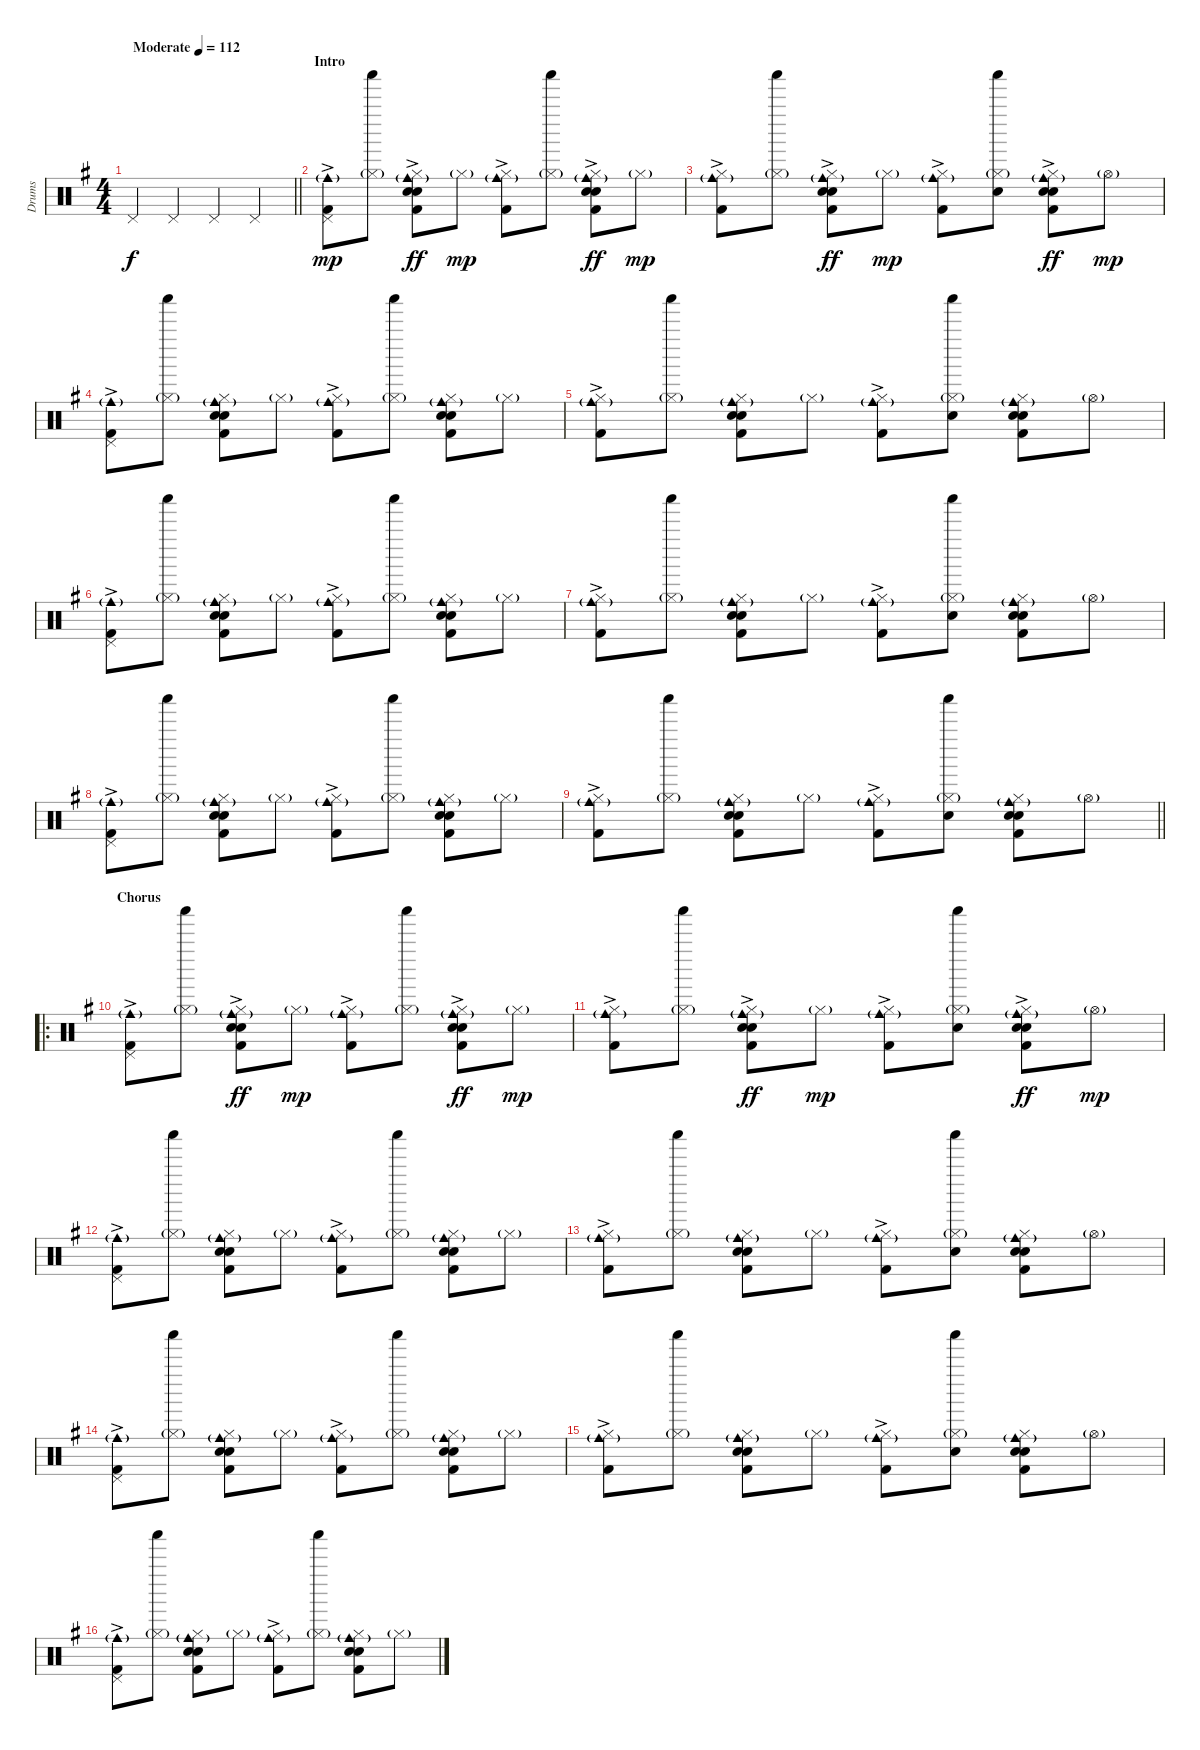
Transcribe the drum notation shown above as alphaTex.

\track ("Drums" "Drums") {instrument percussion}
\staff {score}
\articulation defaults
\ts (4 4)
\tempo (112 "Moderate")
\clef neutral
\barLineRight lightlight
\ks g "Pedal Hi-Hat (hit)".4{dy f} "Pedal Hi-Hat (hit)".4 "Pedal Hi-Hat (hit)".4 "Pedal Hi-Hat (hit)".4
|
\section ("" "Intro")
("Pedal Hi-Hat (hit)"{ac} "Cowbell medium (hit)"{g} "Kick (hit) 2").8{dy mp} ("Hi-Hat (closed)"{g} "Shaker (hit)").8 ("Hi-Hat (closed)" "Hand Clap (hit)" "Cowbell medium (hit)"{g} "Electric Snare (hit)"{ac} "Kick (hit) 2").8{dy ff} "Hi-Hat (closed)"{g}.8{dy mp} ("Hi-Hat (closed)"{ac} "Cowbell medium (hit)"{g} "Kick (hit) 2").8 ("Hi-Hat (closed)"{g} "Shaker (hit)").8 ("Hi-Hat (closed)" "Hand Clap (hit)" "Cowbell medium (hit)"{g} "Electric Snare (hit)"{ac} "Kick (hit) 2").8{dy ff} "Hi-Hat (closed)"{g}.8{dy mp} |
("Hi-Hat (closed)"{ac} "Cowbell medium (hit)"{g} "Kick (hit) 2").8 ("Hi-Hat (closed)"{g} "Shaker (hit)").8 ("Hi-Hat (closed)" "Hand Clap (hit)" "Cowbell medium (hit)"{g} "Electric Snare (hit)"{ac} "Kick (hit) 2").8{dy ff} "Hi-Hat (closed)"{g}.8{dy mp} ("Hi-Hat (closed)"{ac} "Cowbell medium (hit)"{g} "Kick (hit) 2").8 ("Hi-Hat (closed)"{g} "Hand Clap (hit)" "Shaker (hit)").8 ("Hi-Hat (closed)" "Hand Clap (hit)" "Cowbell medium (hit)"{g} "Electric Snare (hit)"{ac} "Kick (hit) 2").8{dy ff} "Hi-Hat (open)"{g}.8{dy mp} |
("Pedal Hi-Hat (hit)"{ac} "Cowbell medium (hit)"{g} "Kick (hit) 2").8 ("Hi-Hat (closed)"{g} "Shaker (hit)").8 ("Hi-Hat (closed)" "Hand Clap (hit)" "Electric Snare (hit)" "Cowbell medium (hit)"{g} "Kick (hit) 2").8 "Hi-Hat (closed)"{g}.8 ("Hi-Hat (closed)"{ac} "Cowbell medium (hit)"{g} "Kick (hit) 2").8 ("Hi-Hat (closed)"{g} "Shaker (hit)").8 ("Hi-Hat (closed)" "Hand Clap (hit)" "Electric Snare (hit)" "Cowbell medium (hit)"{g} "Kick (hit) 2").8 "Hi-Hat (closed)"{g}.8 |
("Hi-Hat (closed)"{ac} "Cowbell medium (hit)"{g} "Kick (hit) 2").8 ("Hi-Hat (closed)"{g} "Shaker (hit)").8 ("Hi-Hat (closed)" "Hand Clap (hit)" "Electric Snare (hit)" "Cowbell medium (hit)"{g} "Kick (hit) 2").8 "Hi-Hat (closed)"{g}.8 ("Hi-Hat (closed)"{ac} "Cowbell medium (hit)"{g} "Kick (hit) 2").8 ("Hi-Hat (closed)"{g} "Hand Clap (hit)" "Shaker (hit)").8 ("Hi-Hat (closed)" "Hand Clap (hit)" "Electric Snare (hit)" "Cowbell medium (hit)"{g} "Kick (hit) 2").8 "Hi-Hat (open)"{g}.8 |
("Pedal Hi-Hat (hit)"{ac} "Cowbell medium (hit)"{g} "Kick (hit) 2").8 ("Hi-Hat (closed)"{g} "Shaker (hit)").8 ("Hi-Hat (closed)" "Hand Clap (hit)" "Electric Snare (hit)" "Cowbell medium (hit)"{g} "Kick (hit) 2").8 "Hi-Hat (closed)"{g}.8 ("Hi-Hat (closed)"{ac} "Cowbell medium (hit)"{g} "Kick (hit) 2").8 ("Hi-Hat (closed)"{g} "Shaker (hit)").8 ("Hi-Hat (closed)" "Hand Clap (hit)" "Electric Snare (hit)" "Cowbell medium (hit)"{g} "Kick (hit) 2").8 "Hi-Hat (closed)"{g}.8 |
("Hi-Hat (closed)"{ac} "Cowbell medium (hit)"{g} "Kick (hit) 2").8 ("Hi-Hat (closed)"{g} "Shaker (hit)").8 ("Hi-Hat (closed)" "Hand Clap (hit)" "Electric Snare (hit)" "Cowbell medium (hit)"{g} "Kick (hit) 2").8 "Hi-Hat (closed)"{g}.8 ("Hi-Hat (closed)"{ac} "Cowbell medium (hit)"{g} "Kick (hit) 2").8 ("Hi-Hat (closed)"{g} "Hand Clap (hit)" "Shaker (hit)").8 ("Hi-Hat (closed)" "Hand Clap (hit)" "Electric Snare (hit)" "Cowbell medium (hit)"{g} "Kick (hit) 2").8 "Hi-Hat (open)"{g}.8 |
("Pedal Hi-Hat (hit)"{ac} "Cowbell medium (hit)"{g} "Kick (hit) 2").8 ("Hi-Hat (closed)"{g} "Shaker (hit)").8 ("Hi-Hat (closed)" "Hand Clap (hit)" "Electric Snare (hit)" "Cowbell medium (hit)"{g} "Kick (hit) 2").8 "Hi-Hat (closed)"{g}.8 ("Hi-Hat (closed)"{ac} "Cowbell medium (hit)"{g} "Kick (hit) 2").8 ("Hi-Hat (closed)"{g} "Shaker (hit)").8 ("Hi-Hat (closed)" "Hand Clap (hit)" "Electric Snare (hit)" "Cowbell medium (hit)"{g} "Kick (hit) 2").8 "Hi-Hat (closed)"{g}.8 |
\barLineRight lightlight
("Hi-Hat (closed)"{ac} "Cowbell medium (hit)"{g} "Kick (hit) 2").8 ("Hi-Hat (closed)"{g} "Shaker (hit)").8 ("Hi-Hat (closed)" "Hand Clap (hit)" "Electric Snare (hit)" "Cowbell medium (hit)"{g} "Kick (hit) 2").8 "Hi-Hat (closed)"{g}.8 ("Hi-Hat (closed)"{ac} "Cowbell medium (hit)"{g} "Kick (hit) 2").8 ("Hi-Hat (closed)"{g} "Hand Clap (hit)" "Shaker (hit)").8 ("Hi-Hat (closed)" "Hand Clap (hit)" "Electric Snare (hit)" "Cowbell medium (hit)"{g} "Kick (hit) 2").8 "Hi-Hat (open)"{g}.8 |
\ro
\section ("" "Chorus")
("Pedal Hi-Hat (hit)"{ac} "Cowbell medium (hit)"{g} "Kick (hit) 2").8 ("Hi-Hat (closed)"{g} "Shaker (hit)").8 ("Hi-Hat (closed)" "Hand Clap (hit)" "Cowbell medium (hit)"{g} "Electric Snare (hit)"{ac} "Kick (hit) 2").8{dy ff} "Hi-Hat (closed)"{g}.8{dy mp} ("Hi-Hat (closed)"{ac} "Cowbell medium (hit)"{g} "Kick (hit) 2").8 ("Hi-Hat (closed)"{g} "Shaker (hit)").8 ("Hi-Hat (closed)" "Hand Clap (hit)" "Cowbell medium (hit)"{g} "Electric Snare (hit)"{ac} "Kick (hit) 2").8{dy ff} "Hi-Hat (closed)"{g}.8{dy mp} |
("Hi-Hat (closed)"{ac} "Cowbell medium (hit)"{g} "Kick (hit) 2").8 ("Hi-Hat (closed)"{g} "Shaker (hit)").8 ("Hi-Hat (closed)" "Hand Clap (hit)" "Cowbell medium (hit)"{g} "Electric Snare (hit)"{ac} "Kick (hit) 2").8{dy ff} "Hi-Hat (closed)"{g}.8{dy mp} ("Hi-Hat (closed)"{ac} "Cowbell medium (hit)"{g} "Kick (hit) 2").8 ("Hi-Hat (closed)"{g} "Hand Clap (hit)" "Shaker (hit)").8 ("Hi-Hat (closed)" "Hand Clap (hit)" "Cowbell medium (hit)"{g} "Electric Snare (hit)"{ac} "Kick (hit) 2").8{dy ff} "Hi-Hat (open)"{g}.8{dy mp} |
("Pedal Hi-Hat (hit)"{ac} "Cowbell medium (hit)"{g} "Kick (hit) 2").8 ("Hi-Hat (closed)"{g} "Shaker (hit)").8 ("Hi-Hat (closed)" "Hand Clap (hit)" "Electric Snare (hit)" "Cowbell medium (hit)"{g} "Kick (hit) 2").8 "Hi-Hat (closed)"{g}.8 ("Hi-Hat (closed)"{ac} "Cowbell medium (hit)"{g} "Kick (hit) 2").8 ("Hi-Hat (closed)"{g} "Shaker (hit)").8 ("Hi-Hat (closed)" "Hand Clap (hit)" "Electric Snare (hit)" "Cowbell medium (hit)"{g} "Kick (hit) 2").8 "Hi-Hat (closed)"{g}.8 |
("Hi-Hat (closed)"{ac} "Cowbell medium (hit)"{g} "Kick (hit) 2").8 ("Hi-Hat (closed)"{g} "Shaker (hit)").8 ("Hi-Hat (closed)" "Hand Clap (hit)" "Electric Snare (hit)" "Cowbell medium (hit)"{g} "Kick (hit) 2").8 "Hi-Hat (closed)"{g}.8 ("Hi-Hat (closed)"{ac} "Cowbell medium (hit)"{g} "Kick (hit) 2").8 ("Hi-Hat (closed)"{g} "Hand Clap (hit)" "Shaker (hit)").8 ("Hi-Hat (closed)" "Hand Clap (hit)" "Electric Snare (hit)" "Cowbell medium (hit)"{g} "Kick (hit) 2").8 "Hi-Hat (open)"{g}.8 |
("Pedal Hi-Hat (hit)"{ac} "Cowbell medium (hit)"{g} "Kick (hit) 2").8 ("Hi-Hat (closed)"{g} "Shaker (hit)").8 ("Hi-Hat (closed)" "Hand Clap (hit)" "Electric Snare (hit)" "Cowbell medium (hit)"{g} "Kick (hit) 2").8 "Hi-Hat (closed)"{g}.8 ("Hi-Hat (closed)"{ac} "Cowbell medium (hit)"{g} "Kick (hit) 2").8 ("Hi-Hat (closed)"{g} "Shaker (hit)").8 ("Hi-Hat (closed)" "Hand Clap (hit)" "Electric Snare (hit)" "Cowbell medium (hit)"{g} "Kick (hit) 2").8 "Hi-Hat (closed)"{g}.8 |
("Hi-Hat (closed)"{ac} "Cowbell medium (hit)"{g} "Kick (hit) 2").8 ("Hi-Hat (closed)"{g} "Shaker (hit)").8 ("Hi-Hat (closed)" "Hand Clap (hit)" "Electric Snare (hit)" "Cowbell medium (hit)"{g} "Kick (hit) 2").8 "Hi-Hat (closed)"{g}.8 ("Hi-Hat (closed)"{ac} "Cowbell medium (hit)"{g} "Kick (hit) 2").8 ("Hi-Hat (closed)"{g} "Hand Clap (hit)" "Shaker (hit)").8 ("Hi-Hat (closed)" "Hand Clap (hit)" "Electric Snare (hit)" "Cowbell medium (hit)"{g} "Kick (hit) 2").8 "Hi-Hat (open)"{g}.8 |
("Pedal Hi-Hat (hit)"{ac} "Cowbell medium (hit)"{g} "Kick (hit) 2").8 ("Hi-Hat (closed)"{g} "Shaker (hit)").8 ("Hi-Hat (closed)" "Hand Clap (hit)" "Electric Snare (hit)" "Cowbell medium (hit)"{g} "Kick (hit) 2").8 "Hi-Hat (closed)"{g}.8 ("Hi-Hat (closed)"{ac} "Cowbell medium (hit)"{g} "Kick (hit) 2").8 ("Hi-Hat (closed)"{g} "Shaker (hit)").8 ("Hi-Hat (closed)" "Hand Clap (hit)" "Electric Snare (hit)" "Cowbell medium (hit)"{g} "Kick (hit) 2").8 "Hi-Hat (closed)"{g}.8
